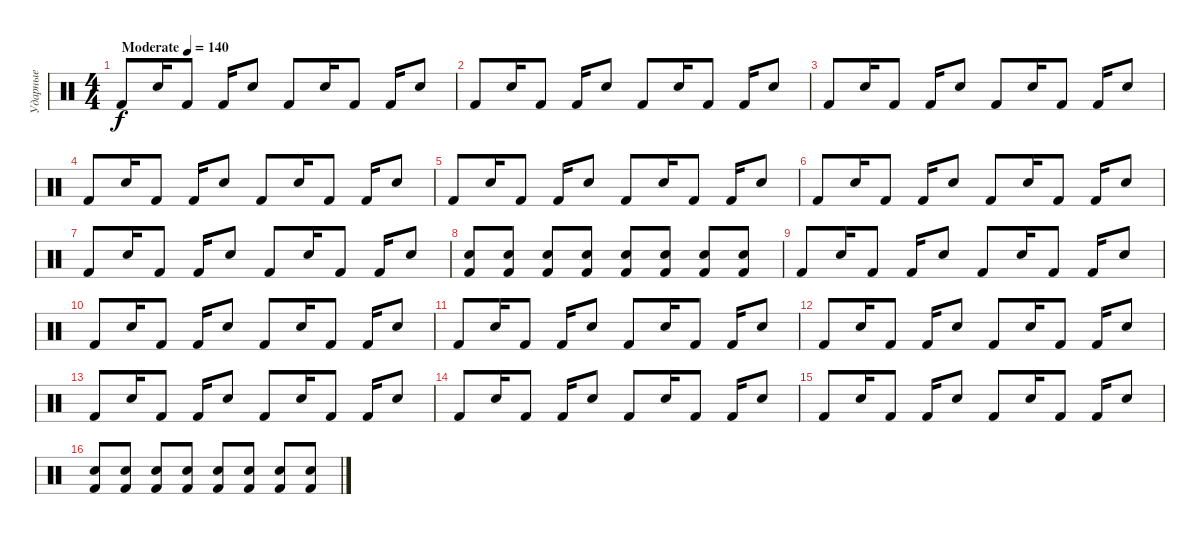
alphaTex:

\track ("Ударные" "Ударные") {instrument percussion}
\staff {score}
\articulation defaults
\ts (4 4)
\tempo (140 "Moderate")
\clef neutral
\ks c "Kick (hit) 2".8{dy f} "Electric Snare (hit)".16 "Kick (hit) 2".8 "Kick (hit) 2".16 "Electric Snare (hit)".8 "Kick (hit) 2".8 "Electric Snare (hit)".16 "Kick (hit) 2".8 "Kick (hit) 2".16 "Electric Snare (hit)".8
|
"Kick (hit) 2".8 "Electric Snare (hit)".16 "Kick (hit) 2".8 "Kick (hit) 2".16 "Electric Snare (hit)".8 "Kick (hit) 2".8 "Electric Snare (hit)".16 "Kick (hit) 2".8 "Kick (hit) 2".16 "Electric Snare (hit)".8 |
"Kick (hit) 2".8 "Electric Snare (hit)".16 "Kick (hit) 2".8 "Kick (hit) 2".16 "Electric Snare (hit)".8 "Kick (hit) 2".8 "Electric Snare (hit)".16 "Kick (hit) 2".8 "Kick (hit) 2".16 "Electric Snare (hit)".8 |
"Kick (hit) 2".8 "Electric Snare (hit)".16 "Kick (hit) 2".8 "Kick (hit) 2".16 "Electric Snare (hit)".8 "Kick (hit) 2".8 "Electric Snare (hit)".16 "Kick (hit) 2".8 "Kick (hit) 2".16 "Electric Snare (hit)".8 |
"Kick (hit) 2".8 "Electric Snare (hit)".16 "Kick (hit) 2".8 "Kick (hit) 2".16 "Electric Snare (hit)".8 "Kick (hit) 2".8 "Electric Snare (hit)".16 "Kick (hit) 2".8 "Kick (hit) 2".16 "Electric Snare (hit)".8 |
"Kick (hit) 2".8 "Electric Snare (hit)".16 "Kick (hit) 2".8 "Kick (hit) 2".16 "Electric Snare (hit)".8 "Kick (hit) 2".8 "Electric Snare (hit)".16 "Kick (hit) 2".8 "Kick (hit) 2".16 "Electric Snare (hit)".8 |
"Kick (hit) 2".8 "Electric Snare (hit)".16 "Kick (hit) 2".8 "Kick (hit) 2".16 "Electric Snare (hit)".8 "Kick (hit) 2".8 "Electric Snare (hit)".16 "Kick (hit) 2".8 "Kick (hit) 2".16 "Electric Snare (hit)".8 |
("Electric Snare (hit)" "Kick (hit) 2").8 ("Electric Snare (hit)" "Kick (hit) 2").8 ("Electric Snare (hit)" "Kick (hit) 2").8 ("Electric Snare (hit)" "Kick (hit) 2").8 ("Electric Snare (hit)" "Kick (hit) 2").8 ("Electric Snare (hit)" "Kick (hit) 2").8 ("Electric Snare (hit)" "Kick (hit) 2").8 ("Electric Snare (hit)" "Kick (hit) 2").8 |
"Kick (hit) 2".8 "Electric Snare (hit)".16 "Kick (hit) 2".8 "Kick (hit) 2".16 "Electric Snare (hit)".8 "Kick (hit) 2".8 "Electric Snare (hit)".16 "Kick (hit) 2".8 "Kick (hit) 2".16 "Electric Snare (hit)".8 |
"Kick (hit) 2".8 "Electric Snare (hit)".16 "Kick (hit) 2".8 "Kick (hit) 2".16 "Electric Snare (hit)".8 "Kick (hit) 2".8 "Electric Snare (hit)".16 "Kick (hit) 2".8 "Kick (hit) 2".16 "Electric Snare (hit)".8 |
"Kick (hit) 2".8 "Electric Snare (hit)".16 "Kick (hit) 2".8 "Kick (hit) 2".16 "Electric Snare (hit)".8 "Kick (hit) 2".8 "Electric Snare (hit)".16 "Kick (hit) 2".8 "Kick (hit) 2".16 "Electric Snare (hit)".8 |
"Kick (hit) 2".8 "Electric Snare (hit)".16 "Kick (hit) 2".8 "Kick (hit) 2".16 "Electric Snare (hit)".8 "Kick (hit) 2".8 "Electric Snare (hit)".16 "Kick (hit) 2".8 "Kick (hit) 2".16 "Electric Snare (hit)".8 |
"Kick (hit) 2".8 "Electric Snare (hit)".16 "Kick (hit) 2".8 "Kick (hit) 2".16 "Electric Snare (hit)".8 "Kick (hit) 2".8 "Electric Snare (hit)".16 "Kick (hit) 2".8 "Kick (hit) 2".16 "Electric Snare (hit)".8 |
"Kick (hit) 2".8 "Electric Snare (hit)".16 "Kick (hit) 2".8 "Kick (hit) 2".16 "Electric Snare (hit)".8 "Kick (hit) 2".8 "Electric Snare (hit)".16 "Kick (hit) 2".8 "Kick (hit) 2".16 "Electric Snare (hit)".8 |
"Kick (hit) 2".8 "Electric Snare (hit)".16 "Kick (hit) 2".8 "Kick (hit) 2".16 "Electric Snare (hit)".8 "Kick (hit) 2".8 "Electric Snare (hit)".16 "Kick (hit) 2".8 "Kick (hit) 2".16 "Electric Snare (hit)".8 |
("Electric Snare (hit)" "Kick (hit) 2").8 ("Electric Snare (hit)" "Kick (hit) 2").8 ("Electric Snare (hit)" "Kick (hit) 2").8 ("Electric Snare (hit)" "Kick (hit) 2").8 ("Electric Snare (hit)" "Kick (hit) 2").8 ("Electric Snare (hit)" "Kick (hit) 2").8 ("Electric Snare (hit)" "Kick (hit) 2").8 ("Electric Snare (hit)" "Kick (hit) 2").8
